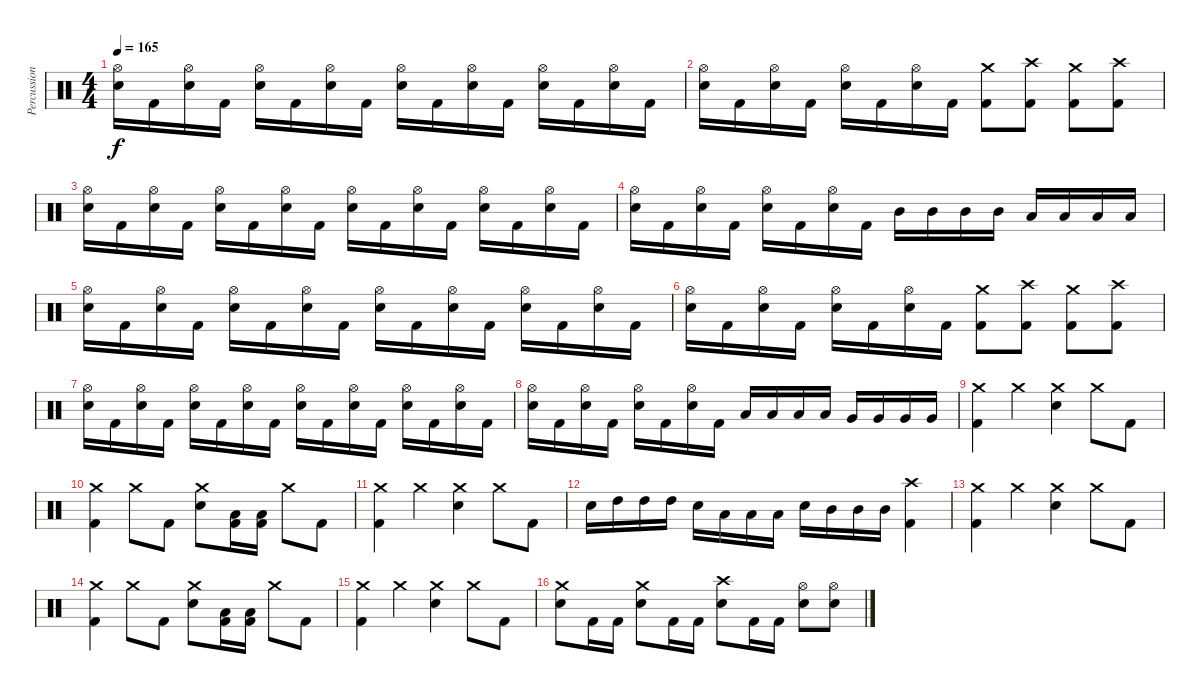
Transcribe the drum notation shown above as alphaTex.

\track ("Percussion" "Percussion") {instrument percussion}
\staff {score}
\articulation defaults
\ts (4 4)
\tempo 165
\clef neutral
\ks c
("Snare (hit) 2" "Hi-Hat (open)").16{dy f} "Kick (hit) 2".16 ("Snare (hit) 2" "Hi-Hat (open)").16 "Kick (hit) 2".16 ("Snare (hit) 2" "Hi-Hat (open)").16 "Kick (hit) 2".16 ("Snare (hit) 2" "Hi-Hat (open)").16 "Kick (hit) 2".16 ("Snare (hit) 2" "Hi-Hat (open)").16 "Kick (hit) 2".16 ("Snare (hit) 2" "Hi-Hat (open)").16 "Kick (hit) 2".16 ("Snare (hit) 2" "Hi-Hat (open)").16 "Kick (hit) 2".16 ("Snare (hit) 2" "Hi-Hat (open)").16 "Kick (hit) 2".16 |
("Snare (hit) 2" "Hi-Hat (open)").16 "Kick (hit) 2".16 ("Snare (hit) 2" "Hi-Hat (open)").16 "Kick (hit) 2".16 ("Snare (hit) 2" "Hi-Hat (open)").16 "Kick (hit) 2".16 ("Snare (hit) 2" "Hi-Hat (open)").16 "Kick (hit) 2".16 ("Kick (hit) 2" "Crash medium (hit)").8 ("Kick (hit) 2" "Crash high (hit)").8 ("Kick (hit) 2" "Crash medium (hit)").8 ("Kick (hit) 2" "Crash high (hit)").8 |
("Snare (hit) 2" "Hi-Hat (open)").16 "Kick (hit) 2".16 ("Snare (hit) 2" "Hi-Hat (open)").16 "Kick (hit) 2".16 ("Snare (hit) 2" "Hi-Hat (open)").16 "Kick (hit) 2".16 ("Snare (hit) 2" "Hi-Hat (open)").16 "Kick (hit) 2".16 ("Snare (hit) 2" "Hi-Hat (open)").16 "Kick (hit) 2".16 ("Snare (hit) 2" "Hi-Hat (open)").16 "Kick (hit) 2".16 ("Snare (hit) 2" "Hi-Hat (open)").16 "Kick (hit) 2".16 ("Snare (hit) 2" "Hi-Hat (open)").16 "Kick (hit) 2".16 |
("Snare (hit) 2" "Hi-Hat (open)").16 "Kick (hit) 2".16 ("Snare (hit) 2" "Hi-Hat (open)").16 "Kick (hit) 2".16 ("Snare (hit) 2" "Hi-Hat (open)").16 "Kick (hit) 2".16 ("Snare (hit) 2" "Hi-Hat (open)").16 "Kick (hit) 2".16 "Mid Tom (hit)".16 "Mid Tom (hit)".16 "Mid Tom (hit)".16 "Mid Tom (hit)".16 "Low Tom (hit)".16 "Low Tom (hit)".16 "Low Tom (hit)".16 "Low Tom (hit)".16 |
("Snare (hit) 2" "Hi-Hat (open)").16 "Kick (hit) 2".16 ("Snare (hit) 2" "Hi-Hat (open)").16 "Kick (hit) 2".16 ("Snare (hit) 2" "Hi-Hat (open)").16 "Kick (hit) 2".16 ("Snare (hit) 2" "Hi-Hat (open)").16 "Kick (hit) 2".16 ("Snare (hit) 2" "Hi-Hat (open)").16 "Kick (hit) 2".16 ("Snare (hit) 2" "Hi-Hat (open)").16 "Kick (hit) 2".16 ("Snare (hit) 2" "Hi-Hat (open)").16 "Kick (hit) 2".16 ("Snare (hit) 2" "Hi-Hat (open)").16 "Kick (hit) 2".16 |
("Snare (hit) 2" "Hi-Hat (open)").16 "Kick (hit) 2".16 ("Snare (hit) 2" "Hi-Hat (open)").16 "Kick (hit) 2".16 ("Snare (hit) 2" "Hi-Hat (open)").16 "Kick (hit) 2".16 ("Snare (hit) 2" "Hi-Hat (open)").16 "Kick (hit) 2".16 ("Kick (hit) 2" "Crash medium (hit)").8 ("Kick (hit) 2" "Crash high (hit)").8 ("Kick (hit) 2" "Crash medium (hit)").8 ("Kick (hit) 2" "Crash high (hit)").8 |
("Snare (hit) 2" "Hi-Hat (open)").16 "Kick (hit) 2".16 ("Snare (hit) 2" "Hi-Hat (open)").16 "Kick (hit) 2".16 ("Snare (hit) 2" "Hi-Hat (open)").16 "Kick (hit) 2".16 ("Snare (hit) 2" "Hi-Hat (open)").16 "Kick (hit) 2".16 ("Snare (hit) 2" "Hi-Hat (open)").16 "Kick (hit) 2".16 ("Snare (hit) 2" "Hi-Hat (open)").16 "Kick (hit) 2".16 ("Snare (hit) 2" "Hi-Hat (open)").16 "Kick (hit) 2".16 ("Snare (hit) 2" "Hi-Hat (open)").16 "Kick (hit) 2".16 |
("Snare (hit) 2" "Hi-Hat (open)").16 "Kick (hit) 2".16 ("Snare (hit) 2" "Hi-Hat (open)").16 "Kick (hit) 2".16 ("Snare (hit) 2" "Hi-Hat (open)").16 "Kick (hit) 2".16 ("Snare (hit) 2" "Hi-Hat (open)").16 "Kick (hit) 2".16 "Low Tom (hit)".16 "Low Tom (hit)".16 "Low Tom (hit)".16 "Low Tom (hit)".16 "Very Low Tom (hit)".16 "Very Low Tom (hit)".16 "Very Low Tom (hit)".16 "Very Low Tom (hit)".16 |
("Kick (hit) 2" "Crash medium (hit)").4 "Crash medium (hit)".4 ("Snare (hit) 2" "Crash medium (hit)").4 "Crash medium (hit)".8 "Kick (hit) 2".8 |
("Kick (hit) 2" "Crash medium (hit)").4 "Crash medium (hit)".8 "Kick (hit) 2".8 ("Snare (hit) 2" "Crash medium (hit)").8 ("Kick (hit) 2" "Low Tom (hit)").16 ("Kick (hit) 2" "Low Tom (hit)").16 "Crash medium (hit)".8 "Kick (hit) 2".8 |
("Kick (hit) 2" "Crash medium (hit)").4 "Crash medium (hit)".4 ("Snare (hit) 2" "Crash medium (hit)").4 "Crash medium (hit)".8 "Kick (hit) 2".8 |
"Snare (hit) 2".16 "High Tom (hit)".16 "High Tom (hit)".16 "High Tom (hit)".16 "Snare (hit) 2".16 "Low Tom (hit)".16 "Low Tom (hit)".16 "Low Tom (hit)".16 "Snare (hit) 2".16 "Mid Tom (hit)".16 "Mid Tom (hit)".16 "Mid Tom (hit)".16 ("Kick (hit) 2" "Crash high (hit)").4 |
("Kick (hit) 2" "Crash medium (hit)").4 "Crash medium (hit)".4 ("Snare (hit) 2" "Crash medium (hit)").4 "Crash medium (hit)".8 "Kick (hit) 2".8 |
("Kick (hit) 2" "Crash medium (hit)").4 "Crash medium (hit)".8 "Kick (hit) 2".8 ("Snare (hit) 2" "Crash medium (hit)").8 ("Kick (hit) 2" "Low Tom (hit)").16 ("Kick (hit) 2" "Low Tom (hit)").16 "Crash medium (hit)".8 "Kick (hit) 2".8 |
("Kick (hit) 2" "Crash medium (hit)").4 "Crash medium (hit)".4 ("Snare (hit) 2" "Crash medium (hit)").4 "Crash medium (hit)".8 "Kick (hit) 2".8 |
("Snare (hit) 2" "Crash medium (hit)").8 "Kick (hit) 2".16 "Kick (hit) 2".16 ("Snare (hit) 2" "Crash medium (hit)").8 "Kick (hit) 2".16 "Kick (hit) 2".16 ("Snare (hit) 2" "Crash high (hit)").8 "Kick (hit) 2".16 "Kick (hit) 2".16 ("Snare (hit) 2" "Hi-Hat (open)").8 ("Snare (hit) 2" "Hi-Hat (open)").8
